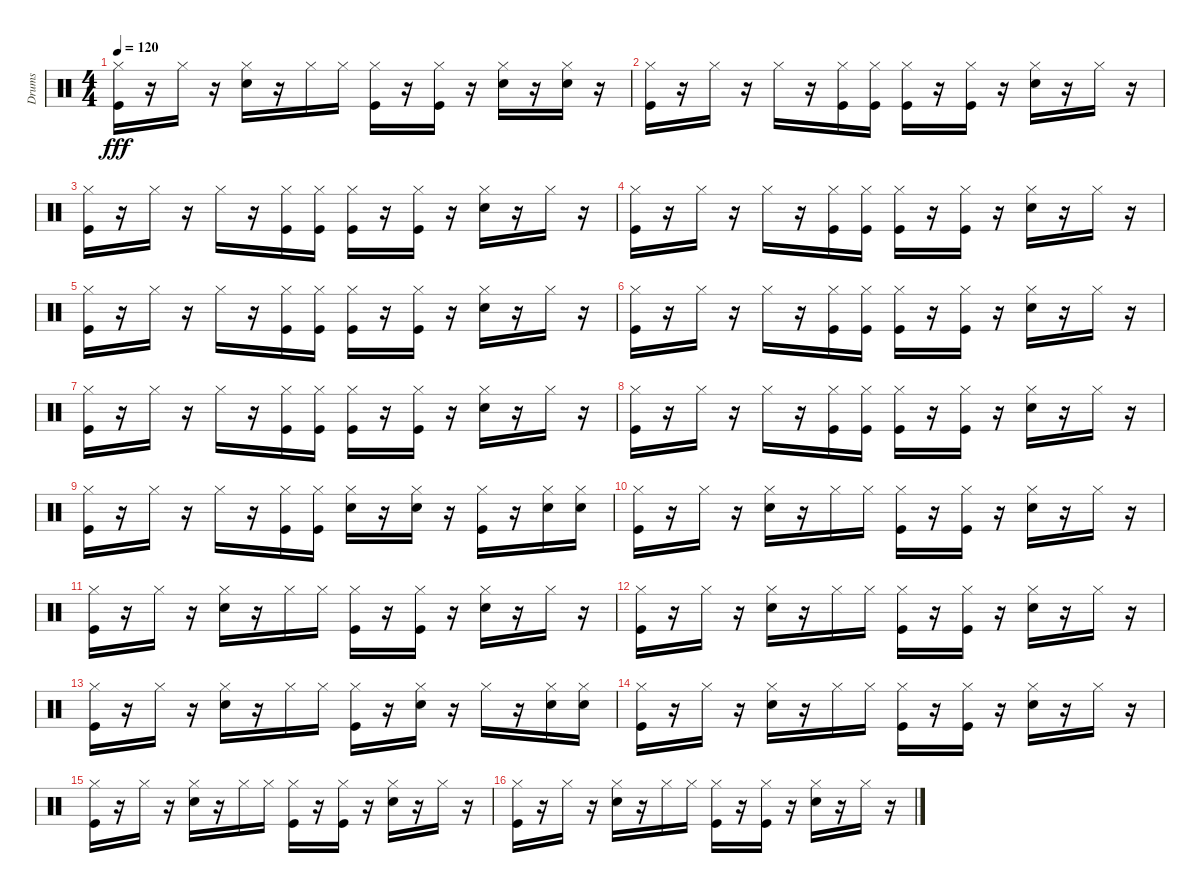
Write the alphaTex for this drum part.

\track ("Drums" "Drums") {instrument percussion}
\staff {score}
\articulation defaults
\ts (4 4)
\tempo 120
\clef neutral
\ks c
("Kick (hit)" "Hi-Hat (closed)").16{dy fff} r.16 "Hi-Hat (closed)".16 r.16 ("Snare (hit) 2" "Hi-Hat (closed)").16 r.16 "Hi-Hat (closed)".16 "Hi-Hat (closed)".16 ("Kick (hit)" "Hi-Hat (closed)").16 r.16 ("Kick (hit)" "Hi-Hat (closed)").16 r.16 ("Snare (hit) 2" "Hi-Hat (closed)").16 r.16 ("Snare (hit) 2" "Hi-Hat (closed)").16 r.16 |
("Kick (hit)" "Hi-Hat (closed)").16 r.16 "Hi-Hat (closed)".16 r.16 "Hi-Hat (closed)".16 r.16 ("Kick (hit)" "Hi-Hat (closed)").16 ("Kick (hit)" "Hi-Hat (closed)").16 ("Kick (hit)" "Hi-Hat (closed)").16 r.16 ("Kick (hit)" "Hi-Hat (closed)").16 r.16 ("Snare (hit) 2" "Hi-Hat (closed)").16 r.16 "Hi-Hat (closed)".16 r.16 |
("Kick (hit)" "Hi-Hat (closed)").16 r.16 "Hi-Hat (closed)".16 r.16 "Hi-Hat (closed)".16 r.16 ("Kick (hit)" "Hi-Hat (closed)").16 ("Kick (hit)" "Hi-Hat (closed)").16 ("Kick (hit)" "Hi-Hat (closed)").16 r.16 ("Kick (hit)" "Hi-Hat (closed)").16 r.16 ("Snare (hit) 2" "Hi-Hat (closed)").16 r.16 "Hi-Hat (closed)".16 r.16 |
("Kick (hit)" "Hi-Hat (closed)").16 r.16 "Hi-Hat (closed)".16 r.16 "Hi-Hat (closed)".16 r.16 ("Kick (hit)" "Hi-Hat (closed)").16 ("Kick (hit)" "Hi-Hat (closed)").16 ("Kick (hit)" "Hi-Hat (closed)").16 r.16 ("Kick (hit)" "Hi-Hat (closed)").16 r.16 ("Snare (hit) 2" "Hi-Hat (closed)").16 r.16 "Hi-Hat (closed)".16 r.16 |
("Kick (hit)" "Hi-Hat (closed)").16 r.16 "Hi-Hat (closed)".16 r.16 "Hi-Hat (closed)".16 r.16 ("Kick (hit)" "Hi-Hat (closed)").16 ("Kick (hit)" "Hi-Hat (closed)").16 ("Kick (hit)" "Hi-Hat (closed)").16 r.16 ("Kick (hit)" "Hi-Hat (closed)").16 r.16 ("Snare (hit) 2" "Hi-Hat (closed)").16 r.16 "Hi-Hat (closed)".16 r.16 |
("Kick (hit)" "Hi-Hat (closed)").16 r.16 "Hi-Hat (closed)".16 r.16 "Hi-Hat (closed)".16 r.16 ("Kick (hit)" "Hi-Hat (closed)").16 ("Kick (hit)" "Hi-Hat (closed)").16 ("Kick (hit)" "Hi-Hat (closed)").16 r.16 ("Kick (hit)" "Hi-Hat (closed)").16 r.16 ("Snare (hit) 2" "Hi-Hat (closed)").16 r.16 "Hi-Hat (closed)".16 r.16 |
("Kick (hit)" "Hi-Hat (closed)").16 r.16 "Hi-Hat (closed)".16 r.16 "Hi-Hat (closed)".16 r.16 ("Kick (hit)" "Hi-Hat (closed)").16 ("Kick (hit)" "Hi-Hat (closed)").16 ("Kick (hit)" "Hi-Hat (closed)").16 r.16 ("Kick (hit)" "Hi-Hat (closed)").16 r.16 ("Snare (hit) 2" "Hi-Hat (closed)").16 r.16 "Hi-Hat (closed)".16 r.16 |
("Kick (hit)" "Hi-Hat (closed)").16 r.16 "Hi-Hat (closed)".16 r.16 "Hi-Hat (closed)".16 r.16 ("Kick (hit)" "Hi-Hat (closed)").16 ("Kick (hit)" "Hi-Hat (closed)").16 ("Kick (hit)" "Hi-Hat (closed)").16 r.16 ("Kick (hit)" "Hi-Hat (closed)").16 r.16 ("Snare (hit) 2" "Hi-Hat (closed)").16 r.16 "Hi-Hat (closed)".16 r.16 |
("Kick (hit)" "Hi-Hat (closed)").16 r.16 "Hi-Hat (closed)".16 r.16 "Hi-Hat (closed)".16 r.16 ("Kick (hit)" "Hi-Hat (closed)").16 ("Kick (hit)" "Hi-Hat (closed)").16 ("Snare (hit) 2" "Hi-Hat (closed)").16 r.16 ("Snare (hit) 2" "Hi-Hat (closed)").16 r.16 ("Kick (hit)" "Hi-Hat (closed)").16 r.16 ("Snare (hit) 2" "Hi-Hat (closed)").16 ("Snare (hit) 2" "Hi-Hat (closed)").16 |
("Kick (hit)" "Hi-Hat (closed)").16 r.16 "Hi-Hat (closed)".16 r.16 ("Snare (hit) 2" "Hi-Hat (closed)").16 r.16 "Hi-Hat (closed)".16 "Hi-Hat (closed)".16 ("Kick (hit)" "Hi-Hat (closed)").16 r.16 ("Kick (hit)" "Hi-Hat (closed)").16 r.16 ("Snare (hit) 2" "Hi-Hat (closed)").16 r.16 "Hi-Hat (closed)".16 r.16 |
("Kick (hit)" "Hi-Hat (closed)").16 r.16 "Hi-Hat (closed)".16 r.16 ("Snare (hit) 2" "Hi-Hat (closed)").16 r.16 "Hi-Hat (closed)".16 "Hi-Hat (closed)".16 ("Kick (hit)" "Hi-Hat (closed)").16 r.16 ("Kick (hit)" "Hi-Hat (closed)").16 r.16 ("Snare (hit) 2" "Hi-Hat (closed)").16 r.16 "Hi-Hat (closed)".16 r.16 |
("Kick (hit)" "Hi-Hat (closed)").16 r.16 "Hi-Hat (closed)".16 r.16 ("Snare (hit) 2" "Hi-Hat (closed)").16 r.16 "Hi-Hat (closed)".16 "Hi-Hat (closed)".16 ("Kick (hit)" "Hi-Hat (closed)").16 r.16 ("Kick (hit)" "Hi-Hat (closed)").16 r.16 ("Snare (hit) 2" "Hi-Hat (closed)").16 r.16 "Hi-Hat (closed)".16 r.16 |
("Kick (hit)" "Hi-Hat (closed)").16 r.16 "Hi-Hat (closed)".16 r.16 ("Snare (hit) 2" "Hi-Hat (closed)").16 r.16 "Hi-Hat (closed)".16 "Hi-Hat (closed)".16 ("Kick (hit)" "Hi-Hat (closed)").16 r.16 ("Snare (hit) 2" "Hi-Hat (closed)").16 r.16 "Hi-Hat (closed)".16 r.16 ("Snare (hit) 2" "Hi-Hat (closed)").16 ("Snare (hit) 2" "Hi-Hat (closed)").16 |
("Kick (hit)" "Hi-Hat (closed)").16 r.16 "Hi-Hat (closed)".16 r.16 ("Snare (hit) 2" "Hi-Hat (closed)").16 r.16 "Hi-Hat (closed)".16 "Hi-Hat (closed)".16 ("Kick (hit)" "Hi-Hat (closed)").16 r.16 ("Kick (hit)" "Hi-Hat (closed)").16 r.16 ("Snare (hit) 2" "Hi-Hat (closed)").16 r.16 "Hi-Hat (closed)".16 r.16 |
("Kick (hit)" "Hi-Hat (closed)").16 r.16 "Hi-Hat (closed)".16 r.16 ("Snare (hit) 2" "Hi-Hat (closed)").16 r.16 "Hi-Hat (closed)".16 "Hi-Hat (closed)".16 ("Kick (hit)" "Hi-Hat (closed)").16 r.16 ("Kick (hit)" "Hi-Hat (closed)").16 r.16 ("Snare (hit) 2" "Hi-Hat (closed)").16 r.16 "Hi-Hat (closed)".16 r.16 |
("Kick (hit)" "Hi-Hat (closed)").16 r.16 "Hi-Hat (closed)".16 r.16 ("Snare (hit) 2" "Hi-Hat (closed)").16 r.16 "Hi-Hat (closed)".16 "Hi-Hat (closed)".16 ("Kick (hit)" "Hi-Hat (closed)").16 r.16 ("Kick (hit)" "Hi-Hat (closed)").16 r.16 ("Snare (hit) 2" "Hi-Hat (closed)").16 r.16 "Hi-Hat (closed)".16 r.16
